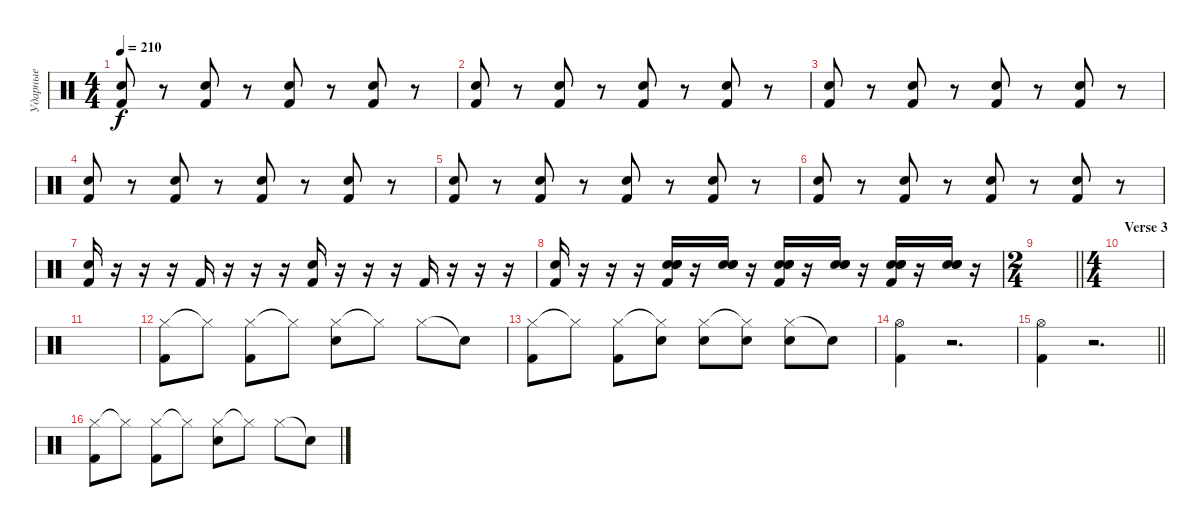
\track ("Ударные" "Ударные") {instrument percussion}
\staff {score}
\articulation defaults
\ts (4 4)
\tempo 210
\clef neutral
\ks c
("Snare (hit) 2" "Kick (hit) 2").8{dy f} r.8 ("Snare (hit) 2" "Kick (hit) 2").8 r.8 ("Snare (hit) 2" "Kick (hit) 2").8 r.8 ("Snare (hit) 2" "Kick (hit) 2").8 r.8 |
("Snare (hit) 2" "Kick (hit) 2").8 r.8 ("Snare (hit) 2" "Kick (hit) 2").8 r.8 ("Snare (hit) 2" "Kick (hit) 2").8 r.8 ("Snare (hit) 2" "Kick (hit) 2").8 r.8 |
("Snare (hit) 2" "Kick (hit) 2").8 r.8 ("Snare (hit) 2" "Kick (hit) 2").8 r.8 ("Snare (hit) 2" "Kick (hit) 2").8 r.8 ("Snare (hit) 2" "Kick (hit) 2").8 r.8 |
("Snare (hit) 2" "Kick (hit) 2").8 r.8 ("Snare (hit) 2" "Kick (hit) 2").8 r.8 ("Snare (hit) 2" "Kick (hit) 2").8 r.8 ("Snare (hit) 2" "Kick (hit) 2").8 r.8 |
("Snare (hit) 2" "Kick (hit) 2").8 r.8 ("Snare (hit) 2" "Kick (hit) 2").8 r.8 ("Snare (hit) 2" "Kick (hit) 2").8 r.8 ("Snare (hit) 2" "Kick (hit) 2").8 r.8 |
("Snare (hit) 2" "Kick (hit) 2").8 r.8 ("Snare (hit) 2" "Kick (hit) 2").8 r.8 ("Snare (hit) 2" "Kick (hit) 2").8 r.8 ("Snare (hit) 2" "Kick (hit) 2").8 r.8 |
("Snare (hit) 2" "Kick (hit) 2").16 r.16 r.16 r.16 "Kick (hit) 2".16 r.16 r.16 r.16 ("Snare (hit) 2" "Kick (hit) 2").16 r.16 r.16 r.16 "Kick (hit) 2".16 r.16 r.16 r.16 |
("Snare (hit) 2" "Kick (hit) 2").16 r.16 r.16 r.16 ("Snare (hit) 2" "Snare (hit) 2" "Snare (hit) 2" "Kick (hit) 2").16 r.16 ("Snare (hit) 2" "Snare (hit) 2" "Snare (hit) 2").16 r.16 ("Snare (hit) 2" "Snare (hit) 2" "Snare (hit) 2" "Kick (hit) 2").16 r.16 ("Snare (hit) 2" "Snare (hit) 2" "Snare (hit) 2").16 r.16 ("Snare (hit) 2" "Snare (hit) 2" "Snare (hit) 2" "Kick (hit) 2").16 r.16 ("Snare (hit) 2" "Snare (hit) 2" "Snare (hit) 2").16 r.16 |
\ts (2 4)
\barLineRight lightlight
|
\ts (4 4)
\section ("" "Verse 3")
|
|
("Hi-Hat (closed)" "Kick (hit) 2").8 "Hi-Hat (closed)"{t}.8 ("Hi-Hat (closed)" "Kick (hit) 2").8 "Hi-Hat (closed)"{t}.8 ("Hi-Hat (closed)" "Snare (hit) 2").8 "Hi-Hat (closed)"{t}.8 "Hi-Hat (closed)".8 "Snare (hit)"{t}.8 |
("Hi-Hat (closed)" "Kick (hit) 2").8 "Hi-Hat (closed)"{t}.8 ("Hi-Hat (closed)" "Kick (hit) 2").8 ("Hi-Hat (closed)"{t} "Snare (hit) 2").8 ("Hi-Hat (closed)" "Snare (hit) 2").8 ("Hi-Hat (closed)"{t} "Snare (hit) 2").8 ("Hi-Hat (closed)" "Snare (hit) 2").8 "Snare (hit)"{t}.8 |
("Hi-Hat (open)" "Kick (hit) 2").4 r.2{d} |
\barLineRight lightlight
("Hi-Hat (open)" "Kick (hit) 2").4 r.2{d} |
("Hi-Hat (closed)" "Kick (hit) 2").8 "Hi-Hat (closed)"{t}.8 ("Hi-Hat (closed)" "Kick (hit) 2").8 "Hi-Hat (closed)"{t}.8 ("Hi-Hat (closed)" "Snare (hit) 2").8 "Hi-Hat (closed)"{t}.8 "Hi-Hat (closed)".8 "Snare (hit)"{t}.8
